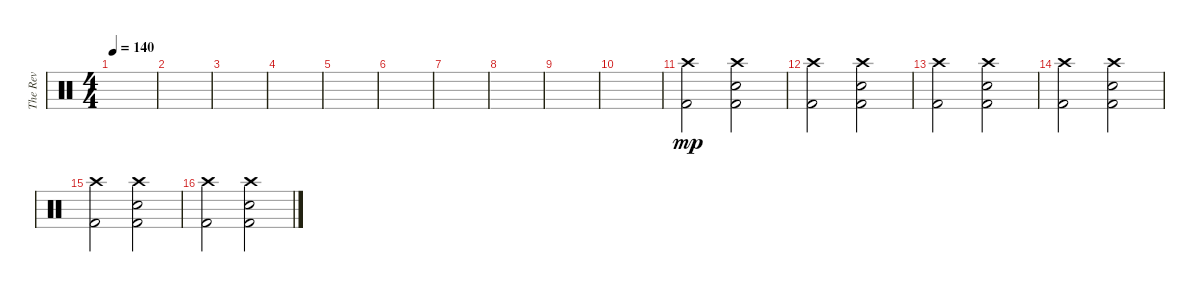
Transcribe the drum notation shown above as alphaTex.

\track ("The Rev" "The Rev") {instrument percussion}
\staff {score}
\articulation defaults
\ts (4 4)
\tempo 140
\clef neutral
\ks c
|
|
|
|
|
|
|
|
|
|
("Crash high (hit)" "Kick (hit) 2").2{dy mp} ("Crash high (hit)" "Electric Snare (hit)" "Kick (hit) 2").2 |
("Crash high (hit)" "Kick (hit) 2").2 ("Crash high (hit)" "Electric Snare (hit)" "Kick (hit) 2").2 |
("Crash high (hit)" "Kick (hit) 2").2 ("Crash high (hit)" "Electric Snare (hit)" "Kick (hit) 2").2 |
("Crash high (hit)" "Kick (hit) 2").2 ("Crash high (hit)" "Electric Snare (hit)" "Kick (hit) 2").2 |
("Crash high (hit)" "Kick (hit) 2").2 ("Crash high (hit)" "Electric Snare (hit)" "Kick (hit) 2").2 |
("Crash high (hit)" "Kick (hit) 2").2 ("Crash high (hit)" "Electric Snare (hit)" "Kick (hit) 2").2
